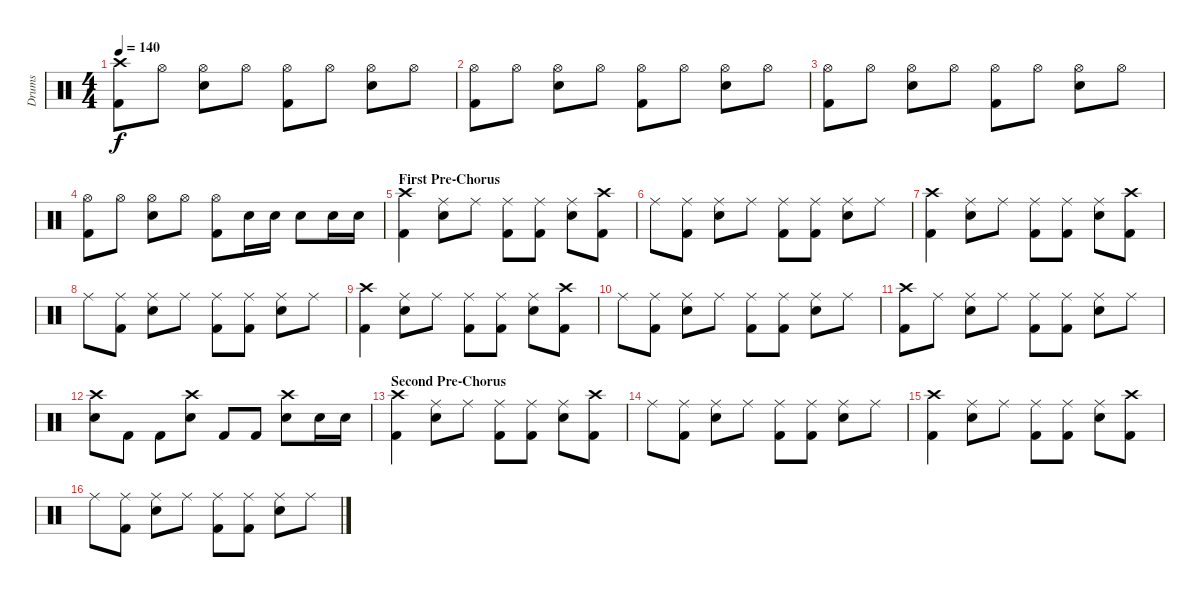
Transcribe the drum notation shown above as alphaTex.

\track ("Drums" "Drums") {instrument percussion}
\staff {score}
\articulation defaults
\ts (4 4)
\tempo 140
\clef neutral
\ks c
("Crash high (hit)" "Kick (hit) 2").8{dy f} "Hi-Hat (open)".8 ("Hi-Hat (open)" "Electric Snare (hit)").8 "Hi-Hat (open)".8 ("Hi-Hat (open)" "Kick (hit) 2").8 "Hi-Hat (open)".8 ("Hi-Hat (open)" "Electric Snare (hit)").8 "Hi-Hat (open)".8 |
("Hi-Hat (open)" "Kick (hit) 2").8 "Hi-Hat (open)".8 ("Hi-Hat (open)" "Electric Snare (hit)").8 "Hi-Hat (open)".8 ("Hi-Hat (open)" "Kick (hit) 2").8 "Hi-Hat (open)".8 ("Hi-Hat (open)" "Electric Snare (hit)").8 "Hi-Hat (open)".8 |
("Hi-Hat (open)" "Kick (hit) 2").8 "Hi-Hat (open)".8 ("Hi-Hat (open)" "Electric Snare (hit)").8 "Hi-Hat (open)".8 ("Hi-Hat (open)" "Kick (hit) 2").8 "Hi-Hat (open)".8 ("Hi-Hat (open)" "Electric Snare (hit)").8 "Hi-Hat (open)".8 |
("Hi-Hat (open)" "Kick (hit) 2").8 "Hi-Hat (open)".8 ("Hi-Hat (open)" "Electric Snare (hit)").8 "Hi-Hat (open)".8 ("Hi-Hat (open)" "Kick (hit) 2").8 "Electric Snare (hit)".16 "Electric Snare (hit)".16 "Electric Snare (hit)".8 "Electric Snare (hit)".16 "Electric Snare (hit)".16 |
\section ("" "First Pre-Chorus")
("Crash high (hit)" "Kick (hit) 2").4 ("Ride (middle)" "Electric Snare (hit)").8 "Ride (middle)".8 ("Ride (middle)" "Kick (hit) 2").8 ("Ride (middle)" "Kick (hit) 2").8 ("Ride (middle)" "Electric Snare (hit)").8 ("Crash high (hit)" "Kick (hit) 2").8 |
"Ride (middle)".8 ("Ride (middle)" "Kick (hit) 2").8 ("Ride (middle)" "Electric Snare (hit)").8 "Ride (middle)".8 ("Ride (middle)" "Kick (hit) 2").8 ("Ride (middle)" "Kick (hit) 2").8 ("Ride (middle)" "Electric Snare (hit)").8 "Ride (middle)".8 |
("Crash high (hit)" "Kick (hit) 2").4 ("Ride (middle)" "Electric Snare (hit)").8 "Ride (middle)".8 ("Ride (middle)" "Kick (hit) 2").8 ("Ride (middle)" "Kick (hit) 2").8 ("Ride (middle)" "Electric Snare (hit)").8 ("Crash high (hit)" "Kick (hit) 2").8 |
"Ride (middle)".8 ("Ride (middle)" "Kick (hit) 2").8 ("Ride (middle)" "Electric Snare (hit)").8 "Ride (middle)".8 ("Ride (middle)" "Kick (hit) 2").8 ("Ride (middle)" "Kick (hit) 2").8 ("Ride (middle)" "Electric Snare (hit)").8 "Ride (middle)".8 |
("Crash high (hit)" "Kick (hit) 2").4 ("Ride (middle)" "Electric Snare (hit)").8 "Ride (middle)".8 ("Ride (middle)" "Kick (hit) 2").8 ("Ride (middle)" "Kick (hit) 2").8 ("Ride (middle)" "Electric Snare (hit)").8 ("Crash high (hit)" "Kick (hit) 2").8 |
"Ride (middle)".8 ("Ride (middle)" "Kick (hit) 2").8 ("Ride (middle)" "Electric Snare (hit)").8 "Ride (middle)".8 ("Ride (middle)" "Kick (hit) 2").8 ("Ride (middle)" "Kick (hit) 2").8 ("Ride (middle)" "Electric Snare (hit)").8 "Ride (middle)".8 |
("Crash high (hit)" "Kick (hit) 2").8 "Ride (middle)".8 ("Ride (middle)" "Electric Snare (hit)").8 "Ride (middle)".8 ("Ride (middle)" "Kick (hit) 2").8 ("Ride (middle)" "Kick (hit) 2").8 ("Ride (middle)" "Electric Snare (hit)").8 "Ride (middle)".8 |
("Crash high (hit)" "Electric Snare (hit)").8 "Kick (hit) 2".8 "Kick (hit) 2".8 ("Crash high (hit)" "Electric Snare (hit)").8 "Kick (hit) 2".8 "Kick (hit) 2".8 ("Crash high (hit)" "Electric Snare (hit)").8 "Electric Snare (hit)".16 "Electric Snare (hit)".16 |
\section ("" "Second Pre-Chorus")
("Crash high (hit)" "Kick (hit) 2").4 ("Ride (middle)" "Electric Snare (hit)").8 "Ride (middle)".8 ("Ride (middle)" "Kick (hit) 2").8 ("Ride (middle)" "Kick (hit) 2").8 ("Ride (middle)" "Electric Snare (hit)").8 ("Crash high (hit)" "Kick (hit) 2").8 |
"Ride (middle)".8 ("Ride (middle)" "Kick (hit) 2").8 ("Ride (middle)" "Electric Snare (hit)").8 "Ride (middle)".8 ("Ride (middle)" "Kick (hit) 2").8 ("Ride (middle)" "Kick (hit) 2").8 ("Ride (middle)" "Electric Snare (hit)").8 "Ride (middle)".8 |
("Crash high (hit)" "Kick (hit) 2").4 ("Ride (middle)" "Electric Snare (hit)").8 "Ride (middle)".8 ("Ride (middle)" "Kick (hit) 2").8 ("Ride (middle)" "Kick (hit) 2").8 ("Ride (middle)" "Electric Snare (hit)").8 ("Crash high (hit)" "Kick (hit) 2").8 |
"Ride (middle)".8 ("Ride (middle)" "Kick (hit) 2").8 ("Ride (middle)" "Electric Snare (hit)").8 "Ride (middle)".8 ("Ride (middle)" "Kick (hit) 2").8 ("Ride (middle)" "Kick (hit) 2").8 ("Ride (middle)" "Electric Snare (hit)").8 "Ride (middle)".8
